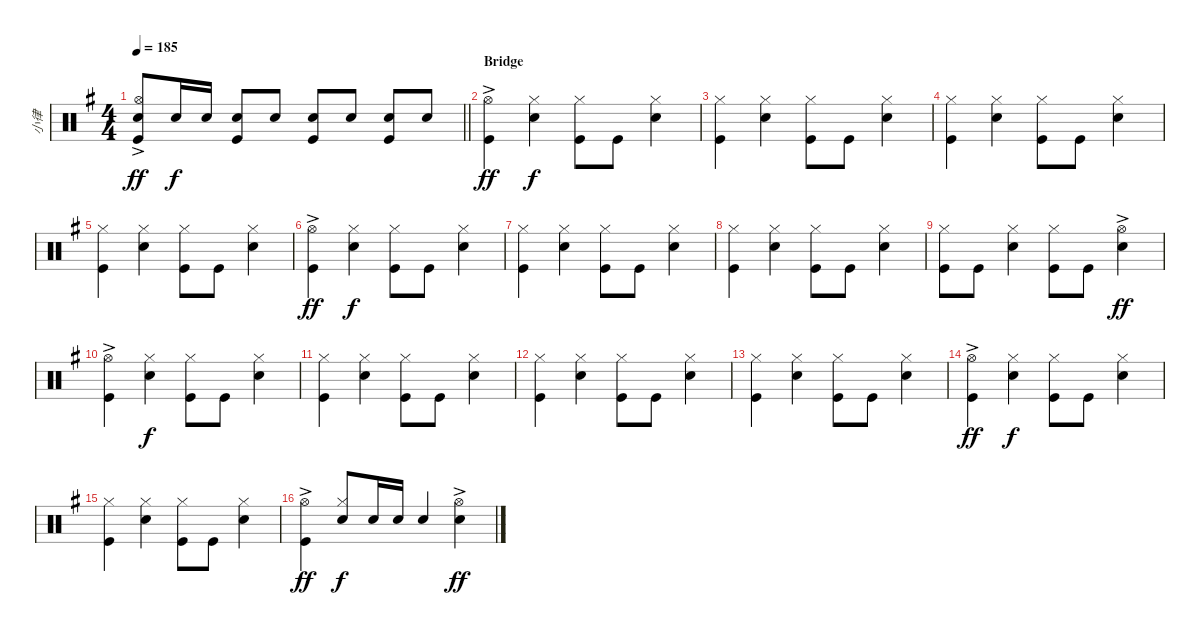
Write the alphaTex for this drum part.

\track ("小律" "小律") {instrument percussion}
\staff {score}
\articulation defaults
\ts (4 4)
\tempo 185
\clef neutral
\barLineRight lightlight
\ks g
("Snare (hit) 2" "Kick (hit)" "Hi-Hat (open)"{ac}).8{dy ff beam Up} "Snare (hit) 2".16{dy f beam Up} "Snare (hit) 2".16{beam Up} ("Snare (hit) 2" "Kick (hit)").8 "Snare (hit) 2".8 ("Snare (hit) 2" "Kick (hit)").8 "Snare (hit) 2".8 ("Snare (hit) 2" "Kick (hit)").8 "Snare (hit) 2".8 |
\section ("" "Bridge")
("Hi-Hat (open)"{ac} "Kick (hit)").4{dy ff} ("Hi-Hat (closed)" "Snare (hit) 2").4{dy f} ("Hi-Hat (closed)" "Kick (hit)").8 "Kick (hit)".8 ("Hi-Hat (closed)" "Snare (hit) 2").4 |
("Hi-Hat (closed)" "Kick (hit)").4 ("Hi-Hat (closed)" "Snare (hit) 2").4 ("Hi-Hat (closed)" "Kick (hit)").8 "Kick (hit)".8 ("Hi-Hat (closed)" "Snare (hit) 2").4 |
("Hi-Hat (closed)" "Kick (hit)").4 ("Hi-Hat (closed)" "Snare (hit) 2").4 ("Hi-Hat (closed)" "Kick (hit)").8 "Kick (hit)".8 ("Hi-Hat (closed)" "Snare (hit) 2").4 |
("Hi-Hat (closed)" "Kick (hit)").4 ("Hi-Hat (closed)" "Snare (hit) 2").4 ("Hi-Hat (closed)" "Kick (hit)").8 "Kick (hit)".8 ("Hi-Hat (closed)" "Snare (hit) 2").4 |
("Hi-Hat (open)"{ac} "Kick (hit)").4{dy ff} ("Hi-Hat (closed)" "Snare (hit) 2").4{dy f} ("Hi-Hat (closed)" "Kick (hit)").8 "Kick (hit)".8 ("Hi-Hat (closed)" "Snare (hit) 2").4 |
("Hi-Hat (closed)" "Kick (hit)").4 ("Hi-Hat (closed)" "Snare (hit) 2").4 ("Hi-Hat (closed)" "Kick (hit)").8 "Kick (hit)".8 ("Hi-Hat (closed)" "Snare (hit) 2").4 |
("Hi-Hat (closed)" "Kick (hit)").4 ("Hi-Hat (closed)" "Snare (hit) 2").4 ("Hi-Hat (closed)" "Kick (hit)").8 "Kick (hit)".8 ("Hi-Hat (closed)" "Snare (hit) 2").4 |
("Hi-Hat (closed)" "Kick (hit)").8 "Kick (hit)".8 ("Hi-Hat (closed)" "Snare (hit) 2").4 ("Hi-Hat (closed)" "Kick (hit)").8 "Kick (hit)".8 ("Hi-Hat (open)" "Snare (hit) 2"{ac}).4{dy ff} |
("Hi-Hat (open)"{ac} "Kick (hit)").4 ("Hi-Hat (closed)" "Snare (hit) 2").4{dy f} ("Hi-Hat (closed)" "Kick (hit)").8 "Kick (hit)".8 ("Hi-Hat (closed)" "Snare (hit) 2").4 |
("Hi-Hat (closed)" "Kick (hit)").4 ("Hi-Hat (closed)" "Snare (hit) 2").4 ("Hi-Hat (closed)" "Kick (hit)").8 "Kick (hit)".8 ("Hi-Hat (closed)" "Snare (hit) 2").4 |
("Hi-Hat (closed)" "Kick (hit)").4 ("Hi-Hat (closed)" "Snare (hit) 2").4 ("Hi-Hat (closed)" "Kick (hit)").8 "Kick (hit)".8 ("Hi-Hat (closed)" "Snare (hit) 2").4 |
("Hi-Hat (closed)" "Kick (hit)").4 ("Hi-Hat (closed)" "Snare (hit) 2").4 ("Hi-Hat (closed)" "Kick (hit)").8 "Kick (hit)".8 ("Hi-Hat (closed)" "Snare (hit) 2").4 |
("Hi-Hat (open)"{ac} "Kick (hit)").4{dy ff} ("Hi-Hat (closed)" "Snare (hit) 2").4{dy f} ("Hi-Hat (closed)" "Kick (hit)").8 "Kick (hit)".8 ("Hi-Hat (closed)" "Snare (hit) 2").4 |
("Hi-Hat (closed)" "Kick (hit)").4 ("Hi-Hat (closed)" "Snare (hit) 2").4 ("Hi-Hat (closed)" "Kick (hit)").8 "Kick (hit)".8 ("Hi-Hat (closed)" "Snare (hit) 2").4 |
("Hi-Hat (open)"{ac} "Kick (hit)").4{dy ff} ("Hi-Hat (closed)" "Snare (hit) 2").8{dy f beam Up} "Snare (hit) 2".16{beam Up} "Snare (hit) 2".16{beam Up} "Snare (hit) 2".4{beam Up} ("Hi-Hat (open)"{ac} "Snare (hit) 2").4{dy ff}
